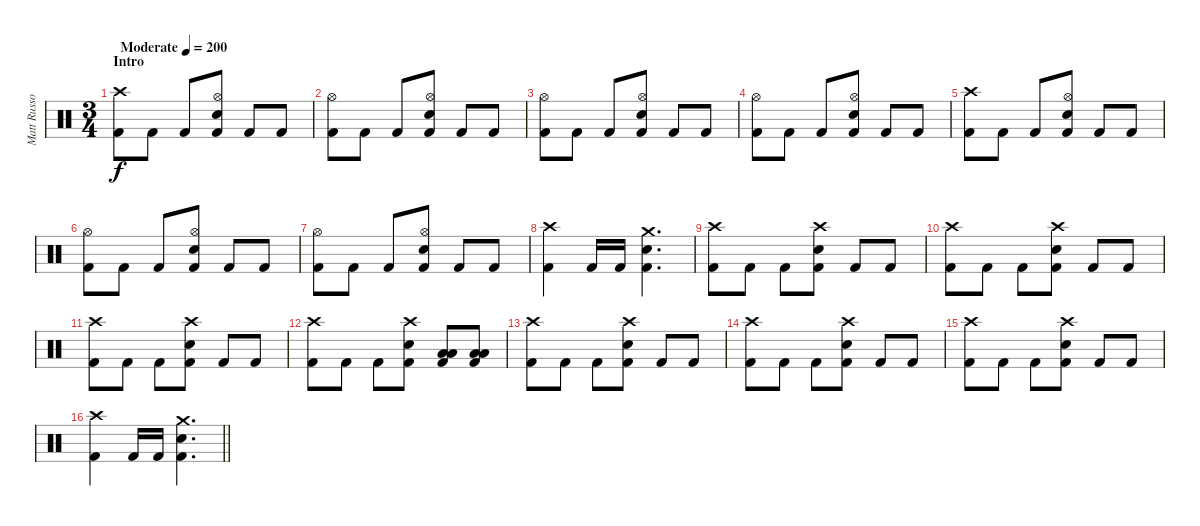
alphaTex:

\track ("Matt Russo" "Matt Russo") {instrument percussion}
\staff {score}
\articulation defaults
\ts (3 4)
\section ("" "Intro")
\tempo (200 "Moderate")
\clef neutral
\ks c
("Crash high (hit)" "Kick (hit) 2").8{dy f} "Kick (hit) 2".8 "Kick (hit) 2".8 ("Hi-Hat (open)" "Electric Snare (hit)" "Kick (hit) 2").8 "Kick (hit) 2".8 "Kick (hit) 2".8 |
("Hi-Hat (open)" "Kick (hit) 2").8 "Kick (hit) 2".8 "Kick (hit) 2".8 ("Hi-Hat (open)" "Electric Snare (hit)" "Kick (hit) 2").8 "Kick (hit) 2".8 "Kick (hit) 2".8 |
("Hi-Hat (open)" "Kick (hit) 2").8 "Kick (hit) 2".8 "Kick (hit) 2".8 ("Hi-Hat (open)" "Electric Snare (hit)" "Kick (hit) 2").8 "Kick (hit) 2".8 "Kick (hit) 2".8 |
("Hi-Hat (open)" "Kick (hit) 2").8 "Kick (hit) 2".8 "Kick (hit) 2".8 ("Hi-Hat (open)" "Electric Snare (hit)" "Kick (hit) 2").8 "Kick (hit) 2".8 "Kick (hit) 2".8 |
("Crash high (hit)" "Kick (hit) 2").8 "Kick (hit) 2".8 "Kick (hit) 2".8 ("Hi-Hat (open)" "Electric Snare (hit)" "Kick (hit) 2").8 "Kick (hit) 2".8 "Kick (hit) 2".8 |
("Hi-Hat (open)" "Kick (hit) 2").8 "Kick (hit) 2".8 "Kick (hit) 2".8 ("Hi-Hat (open)" "Electric Snare (hit)" "Kick (hit) 2").8 "Kick (hit) 2".8 "Kick (hit) 2".8 |
("Hi-Hat (open)" "Kick (hit) 2").8 "Kick (hit) 2".8 "Kick (hit) 2".8 ("Hi-Hat (open)" "Electric Snare (hit)" "Kick (hit) 2").8 "Kick (hit) 2".8 "Kick (hit) 2".8 |
("Crash high (hit)" "Kick (hit) 2").4 "Kick (hit) 2".16 "Kick (hit) 2".16 ("Crash medium (hit)" "Electric Snare (hit)" "Kick (hit) 2").4{d} |
("Crash high (hit)" "Kick (hit) 2").8 "Kick (hit) 2".8 "Kick (hit) 2".8 ("Crash high (hit)" "Electric Snare (hit)" "Kick (hit) 2").8 "Kick (hit) 2".8 "Kick (hit) 2".8 |
("Crash high (hit)" "Kick (hit) 2").8 "Kick (hit) 2".8 "Kick (hit) 2".8 ("Crash high (hit)" "Electric Snare (hit)" "Kick (hit) 2").8 "Kick (hit) 2".8 "Kick (hit) 2".8 |
("Crash high (hit)" "Kick (hit) 2").8 "Kick (hit) 2".8 "Kick (hit) 2".8 ("Crash high (hit)" "Electric Snare (hit)" "Kick (hit) 2").8 "Kick (hit) 2".8 "Kick (hit) 2".8 |
("Crash high (hit)" "Kick (hit) 2").8 "Kick (hit) 2".8 "Kick (hit) 2".8 ("Crash high (hit)" "Electric Snare (hit)" "Kick (hit) 2").8 ("Low Tom (hit)" "Low Floor Tom (hit)" "Kick (hit) 2").8 ("Low Tom (hit)" "Low Floor Tom (hit)" "Kick (hit) 2").8 |
("Crash high (hit)" "Kick (hit) 2").8 "Kick (hit) 2".8 "Kick (hit) 2".8 ("Crash high (hit)" "Electric Snare (hit)" "Kick (hit) 2").8 "Kick (hit) 2".8 "Kick (hit) 2".8 |
("Crash high (hit)" "Kick (hit) 2").8 "Kick (hit) 2".8 "Kick (hit) 2".8 ("Crash high (hit)" "Electric Snare (hit)" "Kick (hit) 2").8 "Kick (hit) 2".8 "Kick (hit) 2".8 |
("Crash high (hit)" "Kick (hit) 2").8 "Kick (hit) 2".8 "Kick (hit) 2".8 ("Crash high (hit)" "Electric Snare (hit)" "Kick (hit) 2").8 "Kick (hit) 2".8 "Kick (hit) 2".8 |
\barLineRight lightlight
("Crash high (hit)" "Kick (hit) 2").4 "Kick (hit) 2".16 "Kick (hit) 2".16 ("Crash medium (hit)" "Electric Snare (hit)" "Kick (hit) 2").4{d}
